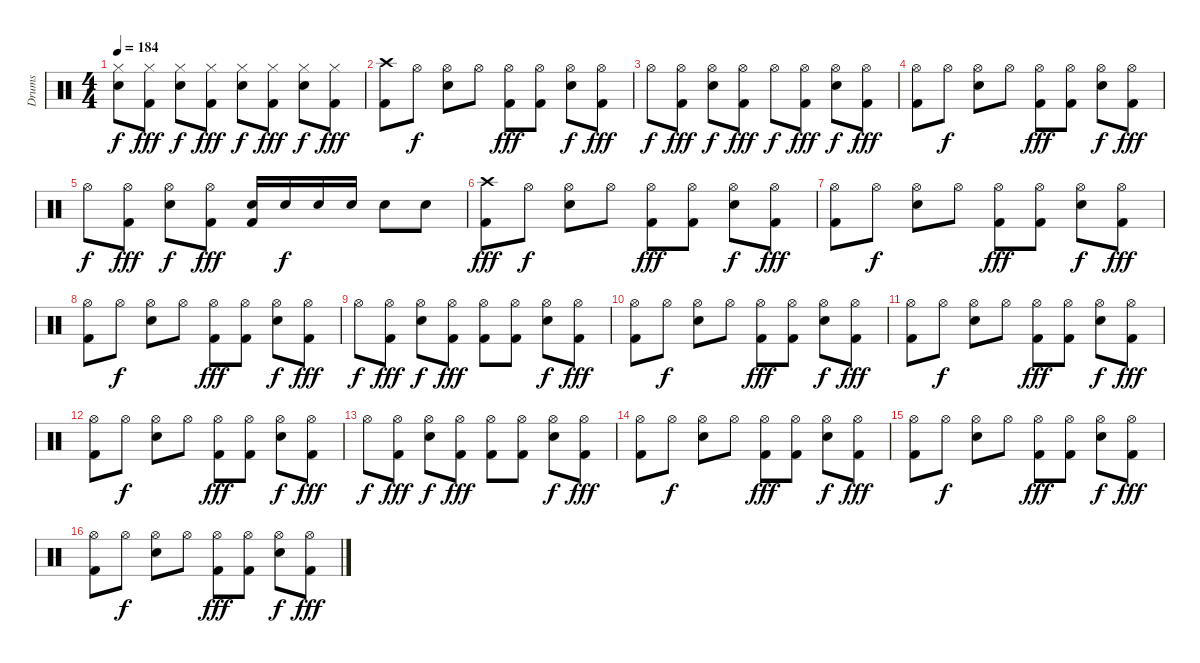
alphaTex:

\track ("Drums" "Drums") {instrument percussion}
\staff {score}
\articulation defaults
\ts (4 4)
\tempo 184
\clef neutral
\ks c
("Hi-Hat (closed)" "Snare (hit) 2").8{dy f} ("Hi-Hat (closed)" "Kick (hit) 2").8{dy fff} ("Hi-Hat (closed)" "Snare (hit) 2").8{dy f} ("Hi-Hat (closed)" "Kick (hit) 2").8{dy fff} ("Hi-Hat (closed)" "Snare (hit) 2").8{dy f} ("Hi-Hat (closed)" "Kick (hit) 2").8{dy fff} ("Hi-Hat (closed)" "Snare (hit) 2").8{dy f} ("Hi-Hat (closed)" "Kick (hit) 2").8{dy fff} |
("Crash high (hit)" "Kick (hit) 2").8 "Hi-Hat (open)".8{dy f} ("Hi-Hat (open)" "Snare (hit) 2").8 "Hi-Hat (open)".8 ("Hi-Hat (open)" "Kick (hit) 2").8{dy fff} ("Hi-Hat (open)" "Kick (hit) 2").8 ("Hi-Hat (open)" "Snare (hit) 2").8{dy f} ("Hi-Hat (open)" "Kick (hit) 2").8{dy fff} |
"Hi-Hat (open)".8{dy f} ("Hi-Hat (open)" "Kick (hit) 2").8{dy fff} ("Hi-Hat (open)" "Snare (hit) 2").8{dy f} ("Hi-Hat (open)" "Kick (hit) 2").8{dy fff} "Hi-Hat (open)".8{dy f} ("Hi-Hat (open)" "Kick (hit) 2").8{dy fff} ("Hi-Hat (open)" "Snare (hit) 2").8{dy f} ("Hi-Hat (open)" "Kick (hit) 2").8{dy fff} |
("Hi-Hat (open)" "Kick (hit) 2").8 "Hi-Hat (open)".8{dy f} ("Hi-Hat (open)" "Snare (hit) 2").8 "Hi-Hat (open)".8 ("Hi-Hat (open)" "Kick (hit) 2").8{dy fff} ("Hi-Hat (open)" "Kick (hit) 2").8 ("Hi-Hat (open)" "Snare (hit) 2").8{dy f} ("Hi-Hat (open)" "Kick (hit) 2").8{dy fff} |
"Hi-Hat (open)".8{dy f} ("Hi-Hat (open)" "Kick (hit) 2").8{dy fff} ("Hi-Hat (open)" "Snare (hit) 2").8{dy f} ("Hi-Hat (open)" "Kick (hit) 2").8{dy fff} ("Snare (hit) 2" "Kick (hit) 2").16 "Snare (hit) 2".16{dy f} "Snare (hit) 2".16 "Snare (hit) 2".16 "Snare (hit) 2".8 "Snare (hit) 2".8 |
("Crash high (hit)" "Kick (hit) 2").8{dy fff} "Hi-Hat (open)".8{dy f} ("Hi-Hat (open)" "Snare (hit) 2").8 "Hi-Hat (open)".8 ("Hi-Hat (open)" "Kick (hit) 2").8{dy fff} ("Hi-Hat (open)" "Kick (hit) 2").8 ("Hi-Hat (open)" "Snare (hit) 2").8{dy f} ("Hi-Hat (open)" "Kick (hit) 2").8{dy fff} |
("Hi-Hat (open)" "Kick (hit) 2").8 "Hi-Hat (open)".8{dy f} ("Hi-Hat (open)" "Snare (hit) 2").8 "Hi-Hat (open)".8 ("Hi-Hat (open)" "Kick (hit) 2").8{dy fff} ("Hi-Hat (open)" "Kick (hit) 2").8 ("Hi-Hat (open)" "Snare (hit) 2").8{dy f} ("Hi-Hat (open)" "Kick (hit) 2").8{dy fff} |
("Hi-Hat (open)" "Kick (hit) 2").8 "Hi-Hat (open)".8{dy f} ("Hi-Hat (open)" "Snare (hit) 2").8 "Hi-Hat (open)".8 ("Hi-Hat (open)" "Kick (hit) 2").8{dy fff} ("Hi-Hat (open)" "Kick (hit) 2").8 ("Hi-Hat (open)" "Snare (hit) 2").8{dy f} ("Hi-Hat (open)" "Kick (hit) 2").8{dy fff} |
"Hi-Hat (open)".8{dy f} ("Hi-Hat (open)" "Kick (hit) 2").8{dy fff} ("Hi-Hat (open)" "Snare (hit) 2").8{dy f} ("Hi-Hat (open)" "Kick (hit) 2").8{dy fff} ("Hi-Hat (open)" "Kick (hit) 2").8 ("Hi-Hat (open)" "Kick (hit) 2").8 ("Hi-Hat (open)" "Snare (hit) 2").8{dy f} ("Hi-Hat (open)" "Kick (hit) 2").8{dy fff} |
("Hi-Hat (open)" "Kick (hit) 2").8 "Hi-Hat (open)".8{dy f} ("Hi-Hat (open)" "Snare (hit) 2").8 "Hi-Hat (open)".8 ("Hi-Hat (open)" "Kick (hit) 2").8{dy fff} ("Hi-Hat (open)" "Kick (hit) 2").8 ("Hi-Hat (open)" "Snare (hit) 2").8{dy f} ("Hi-Hat (open)" "Kick (hit) 2").8{dy fff} |
("Hi-Hat (open)" "Kick (hit) 2").8 "Hi-Hat (open)".8{dy f} ("Hi-Hat (open)" "Snare (hit) 2").8 "Hi-Hat (open)".8 ("Hi-Hat (open)" "Kick (hit) 2").8{dy fff} ("Hi-Hat (open)" "Kick (hit) 2").8 ("Hi-Hat (open)" "Snare (hit) 2").8{dy f} ("Hi-Hat (open)" "Kick (hit) 2").8{dy fff} |
("Hi-Hat (open)" "Kick (hit) 2").8 "Hi-Hat (open)".8{dy f} ("Hi-Hat (open)" "Snare (hit) 2").8 "Hi-Hat (open)".8 ("Hi-Hat (open)" "Kick (hit) 2").8{dy fff} ("Hi-Hat (open)" "Kick (hit) 2").8 ("Hi-Hat (open)" "Snare (hit) 2").8{dy f} ("Hi-Hat (open)" "Kick (hit) 2").8{dy fff} |
"Hi-Hat (open)".8{dy f} ("Hi-Hat (open)" "Kick (hit) 2").8{dy fff} ("Hi-Hat (open)" "Snare (hit) 2").8{dy f} ("Hi-Hat (open)" "Kick (hit) 2").8{dy fff} ("Hi-Hat (open)" "Kick (hit) 2").8 ("Hi-Hat (open)" "Kick (hit) 2").8 ("Hi-Hat (open)" "Snare (hit) 2").8{dy f} ("Hi-Hat (open)" "Kick (hit) 2").8{dy fff} |
("Hi-Hat (open)" "Kick (hit) 2").8 "Hi-Hat (open)".8{dy f} ("Hi-Hat (open)" "Snare (hit) 2").8 "Hi-Hat (open)".8 ("Hi-Hat (open)" "Kick (hit) 2").8{dy fff} ("Hi-Hat (open)" "Kick (hit) 2").8 ("Hi-Hat (open)" "Snare (hit) 2").8{dy f} ("Hi-Hat (open)" "Kick (hit) 2").8{dy fff} |
("Hi-Hat (open)" "Kick (hit) 2").8 "Hi-Hat (open)".8{dy f} ("Hi-Hat (open)" "Snare (hit) 2").8 "Hi-Hat (open)".8 ("Hi-Hat (open)" "Kick (hit) 2").8{dy fff} ("Hi-Hat (open)" "Kick (hit) 2").8 ("Hi-Hat (open)" "Snare (hit) 2").8{dy f} ("Hi-Hat (open)" "Kick (hit) 2").8{dy fff} |
("Hi-Hat (open)" "Kick (hit) 2").8 "Hi-Hat (open)".8{dy f} ("Hi-Hat (open)" "Snare (hit) 2").8 "Hi-Hat (open)".8 ("Hi-Hat (open)" "Kick (hit) 2").8{dy fff} ("Hi-Hat (open)" "Kick (hit) 2").8 ("Hi-Hat (open)" "Snare (hit) 2").8{dy f} ("Hi-Hat (open)" "Kick (hit) 2").8{dy fff}
